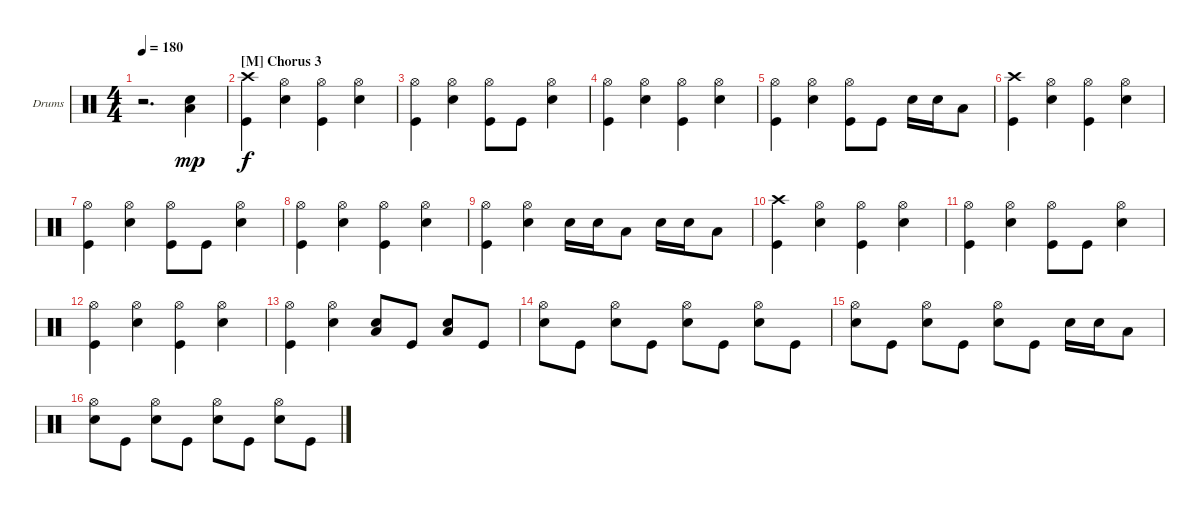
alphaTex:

\defaultSystemsLayout 4
\bracketExtendMode groupsimilarinstruments
\firstSystemTrackNameOrientation horizontal
\otherSystemsTrackNameOrientation horizontal
\track ("Drumkit" "Drums") {instrument percussion}
\staff {score}
\articulation defaults
\ts (4 4)
\tempo 180
\clef neutral
\ks c
r.2{d dy f} ("Snare (hit) 2" "Low Tom (hit)").4{dy mp} |
\section ("M" "Chorus 3")
("Crash high (hit)" "Kick (hit)").4{dy f} ("Snare (hit) 2" "Hi-Hat (open)").4 ("Kick (hit)" "Hi-Hat (open)").4 ("Snare (hit) 2" "Hi-Hat (open)").4 |
("Kick (hit)" "Hi-Hat (open)").4 ("Snare (hit) 2" "Hi-Hat (open)").4 ("Kick (hit)" "Hi-Hat (open)").8 "Kick (hit)".8 ("Snare (hit) 2" "Hi-Hat (open)").4 |
("Kick (hit)" "Hi-Hat (open)").4 ("Snare (hit) 2" "Hi-Hat (open)").4 ("Kick (hit)" "Hi-Hat (open)").4 ("Snare (hit) 2" "Hi-Hat (open)").4 |
("Kick (hit)" "Hi-Hat (open)").4 ("Snare (hit) 2" "Hi-Hat (open)").4 ("Kick (hit)" "Hi-Hat (open)").8 "Kick (hit)".8 "Snare (hit) 2".16 "Snare (hit) 2".16 "Low Tom (hit)".8 |
("Crash high (hit)" "Kick (hit)").4 ("Snare (hit) 2" "Hi-Hat (open)").4 ("Kick (hit)" "Hi-Hat (open)").4 ("Snare (hit) 2" "Hi-Hat (open)").4 |
("Kick (hit)" "Hi-Hat (open)").4 ("Snare (hit) 2" "Hi-Hat (open)").4 ("Kick (hit)" "Hi-Hat (open)").8 "Kick (hit)".8 ("Snare (hit) 2" "Hi-Hat (open)").4 |
("Kick (hit)" "Hi-Hat (open)").4 ("Snare (hit) 2" "Hi-Hat (open)").4 ("Kick (hit)" "Hi-Hat (open)").4 ("Snare (hit) 2" "Hi-Hat (open)").4 |
("Kick (hit)" "Hi-Hat (open)").4 ("Snare (hit) 2" "Hi-Hat (open)").4 "Snare (hit) 2".16 "Snare (hit) 2".16 "Low Tom (hit)".8 "Snare (hit) 2".16 "Snare (hit) 2".16 "Low Tom (hit)".8 |
("Crash high (hit)" "Kick (hit)").4 ("Snare (hit) 2" "Hi-Hat (open)").4 ("Kick (hit)" "Hi-Hat (open)").4 ("Snare (hit) 2" "Hi-Hat (open)").4 |
("Kick (hit)" "Hi-Hat (open)").4 ("Snare (hit) 2" "Hi-Hat (open)").4 ("Kick (hit)" "Hi-Hat (open)").8 "Kick (hit)".8 ("Snare (hit) 2" "Hi-Hat (open)").4 |
("Kick (hit)" "Hi-Hat (open)").4 ("Snare (hit) 2" "Hi-Hat (open)").4 ("Kick (hit)" "Hi-Hat (open)").4 ("Snare (hit) 2" "Hi-Hat (open)").4 |
("Kick (hit)" "Hi-Hat (open)").4 ("Snare (hit) 2" "Hi-Hat (open)").4 ("Low Tom (hit)" "Snare (hit) 2").8 "Kick (hit)".8 ("Low Tom (hit)" "Snare (hit) 2").8 "Kick (hit)".8 |
("Hi-Hat (open)" "Snare (hit) 2").8 "Kick (hit)".8 ("Hi-Hat (open)" "Snare (hit) 2").8 "Kick (hit)".8 ("Hi-Hat (open)" "Snare (hit) 2").8 "Kick (hit)".8 ("Hi-Hat (open)" "Snare (hit) 2").8 "Kick (hit)".8 |
("Hi-Hat (open)" "Snare (hit) 2").8 "Kick (hit)".8 ("Hi-Hat (open)" "Snare (hit) 2").8 "Kick (hit)".8 ("Hi-Hat (open)" "Snare (hit) 2").8 "Kick (hit)".8 "Snare (hit) 2".16 "Snare (hit) 2".16 "Low Tom (hit)".8 |
("Hi-Hat (open)" "Snare (hit) 2").8 "Kick (hit)".8 ("Hi-Hat (open)" "Snare (hit) 2").8 "Kick (hit)".8 ("Hi-Hat (open)" "Snare (hit) 2").8 "Kick (hit)".8 ("Hi-Hat (open)" "Snare (hit) 2").8 "Kick (hit)".8
